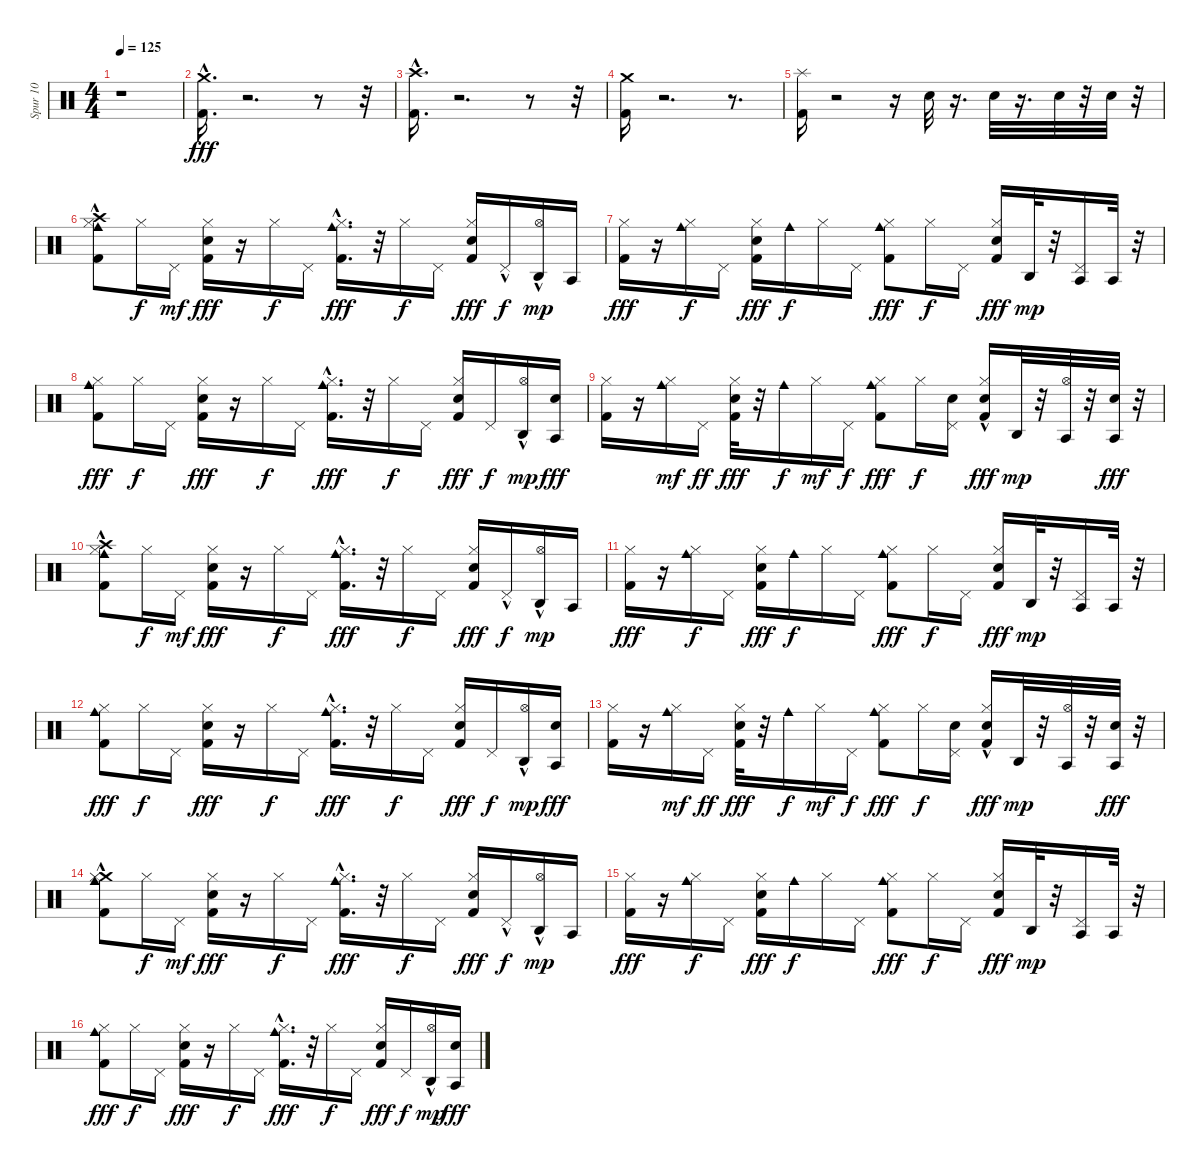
\track ("Spur 10" "Spur 10") {instrument percussion}
\staff {score}
\articulation defaults
\ts (4 4)
\tempo 125
\clef neutral
\ks c
r.1{dy fff} |
("Kick (hit) 2"{hac} "Crash medium (hit)").16{d} r.2{d} r.8 r.32 |
("Kick (hit) 2"{hac} "Crash high (hit)").16{d} r.2{d} r.8 r.32 |
("Kick (hit) 2" "Crash medium (hit)").16 r.2{d} r.8{d} |
("Kick (hit) 2" "Splash (hit)").16 r.2 r.16 "Electric Snare (hit)".32 r.16{d} "Electric Snare (hit)".32 r.16{d} "Electric Snare (hit)".32 r.32 "Electric Snare (hit)".32 r.32 |
("Cowbell medium (hit)" "Crash high (hit)"{hac} "Hi-Hat (closed)" "Kick (hit) 2").8 "Hi-Hat (closed)".16{dy f} "Pedal Hi-Hat (hit)".16{dy mf} ("Electric Snare (hit)" "Kick (hit) 2" "Hi-Hat (closed)").16{dy fff} r.16 "Hi-Hat (closed)".16{dy f} "Pedal Hi-Hat (hit)".16 ("Cowbell medium (hit)"{hac} "Kick (hit) 2" "Hi-Hat (closed)").16{d dy fff} r.32 "Hi-Hat (closed)".16{dy f} "Pedal Hi-Hat (hit)".16 ("Kick (hit) 2" "Electric Snare (hit)" "Hi-Hat (closed)").16{dy fff} "Pedal Hi-Hat (hit)"{hac}.16{dy f} ("Agogo high (hit)" "Hi-Hat (open)"{hac}).16{dy mp} "Agogo tow (hit)".16 |
("Kick (hit) 2" "Hi-Hat (closed)").16{dy fff} r.16 ("Cowbell medium (hit)" "Hi-Hat (closed)").16{dy f} "Pedal Hi-Hat (hit)".16 ("Hi-Hat (closed)" "Kick (hit) 2" "Electric Snare (hit)").16{dy fff} "Cowbell medium (hit)".16{dy f} "Hi-Hat (closed)".16 "Pedal Hi-Hat (hit)".16 ("Cowbell medium (hit)" "Kick (hit) 2" "Hi-Hat (closed)").8{dy fff} "Hi-Hat (closed)".16{dy f} "Pedal Hi-Hat (hit)".16 ("Electric Snare (hit)" "Kick (hit) 2" "Hi-Hat (closed)").16{dy fff} "Agogo high (hit)".32{dy mp} r.32 ("Agogo tow (hit)" "Pedal Hi-Hat (hit)").16 "Agogo tow (hit)".32 r.32 |
("Cowbell medium (hit)" "Kick (hit) 2" "Hi-Hat (closed)").8{dy fff} "Hi-Hat (closed)".16{dy f} "Pedal Hi-Hat (hit)".16 ("Electric Snare (hit)" "Kick (hit) 2" "Hi-Hat (closed)").16{dy fff} r.16 "Hi-Hat (closed)".16{dy f} "Pedal Hi-Hat (hit)".16 ("Cowbell medium (hit)"{hac} "Hi-Hat (closed)" "Kick (hit) 2").16{d dy fff} r.32 "Hi-Hat (closed)".16{dy f} "Pedal Hi-Hat (hit)".16 ("Kick (hit) 2" "Electric Snare (hit)" "Hi-Hat (closed)").16{dy fff} "Pedal Hi-Hat (hit)".16{dy f} ("Agogo high (hit)" "Hi-Hat (open)"{hac}).16{dy mp} ("Agogo tow (hit)" "Electric Snare (hit)").16{dy fff} |
("Kick (hit) 2" "Hi-Hat (closed)").16 r.16 ("Cowbell medium (hit)" "Hi-Hat (closed)").16{dy mf} "Pedal Hi-Hat (hit)".16{dy ff} ("Electric Snare (hit)" "Kick (hit) 2" "Hi-Hat (closed)").32{dy fff} r.32 "Cowbell medium (hit)".16{dy f} "Hi-Hat (closed)".16{dy mf} "Pedal Hi-Hat (hit)".16{dy f} ("Cowbell medium (hit)" "Hi-Hat (closed)" "Kick (hit) 2").8{dy fff} "Hi-Hat (closed)".16{dy f} ("Pedal Hi-Hat (hit)" "Electric Snare (hit)").16 ("Hi-Hat (closed)" "Kick (hit) 2"{hac} "Electric Snare (hit)").16{dy fff} "Agogo high (hit)".32{dy mp} r.32 ("Agogo tow (hit)" "Hi-Hat (open)").32 r.32 ("Agogo tow (hit)" "Electric Snare (hit)").32{dy fff} r.32 |
("Cowbell medium (hit)" "Crash high (hit)"{hac} "Hi-Hat (closed)" "Kick (hit) 2").8 "Hi-Hat (closed)".16{dy f} "Pedal Hi-Hat (hit)".16{dy mf} ("Electric Snare (hit)" "Kick (hit) 2" "Hi-Hat (closed)").16{dy fff} r.16 "Hi-Hat (closed)".16{dy f} "Pedal Hi-Hat (hit)".16 ("Cowbell medium (hit)"{hac} "Kick (hit) 2" "Hi-Hat (closed)").16{d dy fff} r.32 "Hi-Hat (closed)".16{dy f} "Pedal Hi-Hat (hit)".16 ("Kick (hit) 2" "Electric Snare (hit)" "Hi-Hat (closed)").16{dy fff} "Pedal Hi-Hat (hit)"{hac}.16{dy f} ("Agogo high (hit)" "Hi-Hat (open)"{hac}).16{dy mp} "Agogo tow (hit)".16 |
("Kick (hit) 2" "Hi-Hat (closed)").16{dy fff} r.16 ("Cowbell medium (hit)" "Hi-Hat (closed)").16{dy f} "Pedal Hi-Hat (hit)".16 ("Hi-Hat (closed)" "Kick (hit) 2" "Electric Snare (hit)").16{dy fff} "Cowbell medium (hit)".16{dy f} "Hi-Hat (closed)".16 "Pedal Hi-Hat (hit)".16 ("Cowbell medium (hit)" "Kick (hit) 2" "Hi-Hat (closed)").8{dy fff} "Hi-Hat (closed)".16{dy f} "Pedal Hi-Hat (hit)".16 ("Electric Snare (hit)" "Kick (hit) 2" "Hi-Hat (closed)").16{dy fff} "Agogo high (hit)".32{dy mp} r.32 ("Agogo tow (hit)" "Pedal Hi-Hat (hit)").16 "Agogo tow (hit)".32 r.32 |
("Cowbell medium (hit)" "Kick (hit) 2" "Hi-Hat (closed)").8{dy fff} "Hi-Hat (closed)".16{dy f} "Pedal Hi-Hat (hit)".16 ("Electric Snare (hit)" "Kick (hit) 2" "Hi-Hat (closed)").16{dy fff} r.16 "Hi-Hat (closed)".16{dy f} "Pedal Hi-Hat (hit)".16 ("Cowbell medium (hit)"{hac} "Hi-Hat (closed)" "Kick (hit) 2").16{d dy fff} r.32 "Hi-Hat (closed)".16{dy f} "Pedal Hi-Hat (hit)".16 ("Kick (hit) 2" "Electric Snare (hit)" "Hi-Hat (closed)").16{dy fff} "Pedal Hi-Hat (hit)".16{dy f} ("Agogo high (hit)" "Hi-Hat (open)"{hac}).16{dy mp} ("Agogo tow (hit)" "Electric Snare (hit)").16{dy fff} |
("Kick (hit) 2" "Hi-Hat (closed)").16 r.16 ("Cowbell medium (hit)" "Hi-Hat (closed)").16{dy mf} "Pedal Hi-Hat (hit)".16{dy ff} ("Electric Snare (hit)" "Kick (hit) 2" "Hi-Hat (closed)").32{dy fff} r.32 "Cowbell medium (hit)".16{dy f} "Hi-Hat (closed)".16{dy mf} "Pedal Hi-Hat (hit)".16{dy f} ("Cowbell medium (hit)" "Hi-Hat (closed)" "Kick (hit) 2").8{dy fff} "Hi-Hat (closed)".16{dy f} ("Pedal Hi-Hat (hit)" "Electric Snare (hit)").16 ("Hi-Hat (closed)" "Kick (hit) 2"{hac} "Electric Snare (hit)").16{dy fff} "Agogo high (hit)".32{dy mp} r.32 ("Agogo tow (hit)" "Hi-Hat (open)").32 r.32 ("Agogo tow (hit)" "Electric Snare (hit)").32{dy fff} r.32 |
("Cowbell medium (hit)" "Crash medium (hit)"{hac} "Hi-Hat (closed)" "Kick (hit) 2").8 "Hi-Hat (closed)".16{dy f} "Pedal Hi-Hat (hit)".16{dy mf} ("Electric Snare (hit)" "Kick (hit) 2" "Hi-Hat (closed)").16{dy fff} r.16 "Hi-Hat (closed)".16{dy f} "Pedal Hi-Hat (hit)".16 ("Cowbell medium (hit)"{hac} "Kick (hit) 2" "Hi-Hat (closed)").16{d dy fff} r.32 "Hi-Hat (closed)".16{dy f} "Pedal Hi-Hat (hit)".16 ("Kick (hit) 2" "Electric Snare (hit)" "Hi-Hat (closed)").16{dy fff} "Pedal Hi-Hat (hit)"{hac}.16{dy f} ("Agogo high (hit)" "Hi-Hat (open)"{hac}).16{dy mp} "Agogo tow (hit)".16 |
("Kick (hit) 2" "Hi-Hat (closed)").16{dy fff} r.16 ("Cowbell medium (hit)" "Hi-Hat (closed)").16{dy f} "Pedal Hi-Hat (hit)".16 ("Hi-Hat (closed)" "Kick (hit) 2" "Electric Snare (hit)").16{dy fff} "Cowbell medium (hit)".16{dy f} "Hi-Hat (closed)".16 "Pedal Hi-Hat (hit)".16 ("Cowbell medium (hit)" "Kick (hit) 2" "Hi-Hat (closed)").8{dy fff} "Hi-Hat (closed)".16{dy f} "Pedal Hi-Hat (hit)".16 ("Electric Snare (hit)" "Kick (hit) 2" "Hi-Hat (closed)").16{dy fff} "Agogo high (hit)".32{dy mp} r.32 ("Agogo tow (hit)" "Pedal Hi-Hat (hit)").16 "Agogo tow (hit)".32 r.32 |
("Cowbell medium (hit)" "Kick (hit) 2" "Hi-Hat (closed)").8{dy fff} "Hi-Hat (closed)".16{dy f} "Pedal Hi-Hat (hit)".16 ("Electric Snare (hit)" "Kick (hit) 2" "Hi-Hat (closed)").16{dy fff} r.16 "Hi-Hat (closed)".16{dy f} "Pedal Hi-Hat (hit)".16 ("Cowbell medium (hit)"{hac} "Hi-Hat (closed)" "Kick (hit) 2").16{d dy fff} r.32 "Hi-Hat (closed)".16{dy f} "Pedal Hi-Hat (hit)".16 ("Kick (hit) 2" "Electric Snare (hit)" "Hi-Hat (closed)").16{dy fff} "Pedal Hi-Hat (hit)".16{dy f} ("Agogo high (hit)" "Hi-Hat (open)"{hac}).16{dy mp} ("Agogo tow (hit)" "Electric Snare (hit)").16{dy fff}
